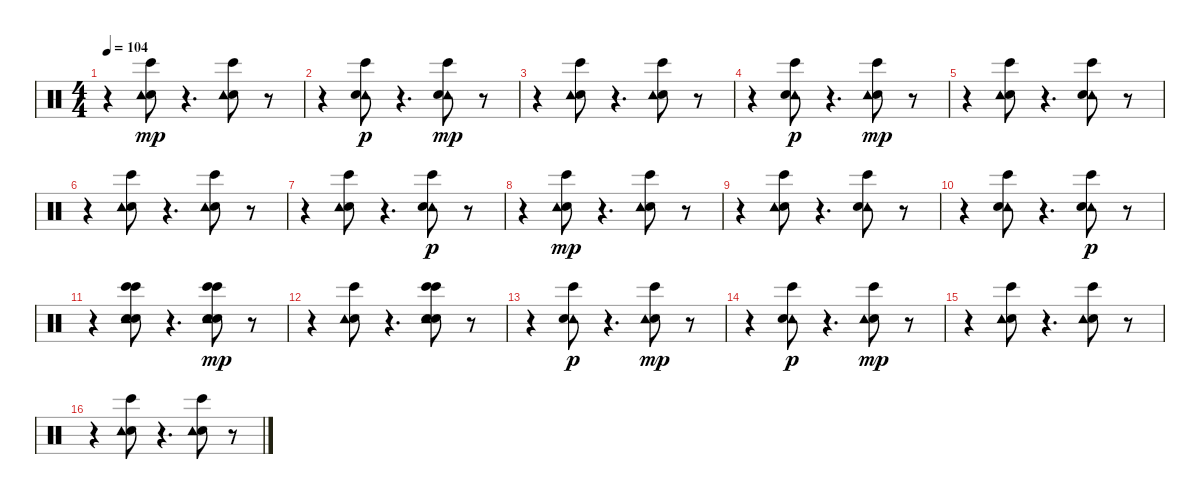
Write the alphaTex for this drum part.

\track "" {instrument percussion}
\staff {score}
\articulation defaults
\ts (4 4)
\tempo 104
\clef neutral
\ks c
r.4{dy p} ("Electric Snare (hit)" "Tambourine (hit)" "Bongo High (hit)").8{dy mp} r.4{d} ("Electric Snare (hit)" "Tambourine (hit)" "Bongo High (hit)").8 r.8 |
r.4 ("Bongo High (hit)" "Tambourine (hit)" "Electric Snare (hit)").8{dy p} r.4{d} ("Tambourine (hit)" "Electric Snare (hit)" "Bongo High (hit)").8{dy mp} r.8 |
r.4 ("Electric Snare (hit)" "Bongo High (hit)" "Tambourine (hit)").8 r.4{d} ("Electric Snare (hit)" "Bongo High (hit)" "Tambourine (hit)").8 r.8 |
r.4 ("Bongo High (hit)" "Tambourine (hit)" "Electric Snare (hit)").8{dy p} r.4{d} ("Bongo High (hit)" "Electric Snare (hit)" "Tambourine (hit)").8{dy mp} r.8 |
r.4 ("Bongo High (hit)" "Electric Snare (hit)" "Tambourine (hit)").8 r.4{d} ("Tambourine (hit)" "Electric Snare (hit)" "Bongo High (hit)").8 r.8 |
r.4 ("Electric Snare (hit)" "Tambourine (hit)" "Bongo High (hit)").8 r.4{d} ("Bongo High (hit)" "Electric Snare (hit)" "Tambourine (hit)").8 r.8 |
r.4 ("Electric Snare (hit)" "Bongo High (hit)" "Tambourine (hit)").8 r.4{d} ("Tambourine (hit)" "Bongo High (hit)" "Electric Snare (hit)").8{dy p} r.8 |
r.4 ("Electric Snare (hit)" "Tambourine (hit)" "Bongo High (hit)").8{dy mp} r.4{d} ("Electric Snare (hit)" "Tambourine (hit)" "Bongo High (hit)").8 r.8 |
r.4 ("Electric Snare (hit)" "Bongo High (hit)" "Tambourine (hit)").8 r.4{d} ("Tambourine (hit)" "Electric Snare (hit)" "Bongo High (hit)").8 r.8 |
r.4 ("Tambourine (hit)" "Electric Snare (hit)" "Bongo High (hit)").8 r.4{d} ("Tambourine (hit)" "Bongo High (hit)" "Electric Snare (hit)").8{dy p} r.8 |
r.4 ("Electric Snare (hit)" "Bongo High (hit)" "Bongo High (hit)" "Tambourine (hit)" "Electric Snare (hit)").8 r.4{d} ("Electric Snare (hit)" "Tambourine (hit)" "Electric Snare (hit)" "Bongo High (hit)" "Bongo High (hit)").8{dy mp} r.8 |
r.4 ("Bongo High (hit)" "Electric Snare (hit)" "Tambourine (hit)").8 r.4{d} ("Electric Snare (hit)" "Tambourine (hit)" "Electric Snare (hit)" "Bongo High (hit)" "Bongo High (hit)").8 r.8 |
r.4 ("Tambourine (hit)" "Bongo High (hit)" "Electric Snare (hit)").8{dy p} r.4{d} ("Bongo High (hit)" "Electric Snare (hit)" "Tambourine (hit)").8{dy mp} r.8 |
r.4 ("Bongo High (hit)" "Tambourine (hit)" "Electric Snare (hit)").8{dy p} r.4{d} ("Bongo High (hit)" "Electric Snare (hit)" "Tambourine (hit)").8{dy mp} r.8 |
r.4 ("Electric Snare (hit)" "Bongo High (hit)" "Tambourine (hit)").8 r.4{d} ("Bongo High (hit)" "Electric Snare (hit)" "Tambourine (hit)").8 r.8 |
r.4 ("Electric Snare (hit)" "Tambourine (hit)" "Bongo High (hit)").8 r.4{d} ("Electric Snare (hit)" "Tambourine (hit)" "Bongo High (hit)").8 r.8
